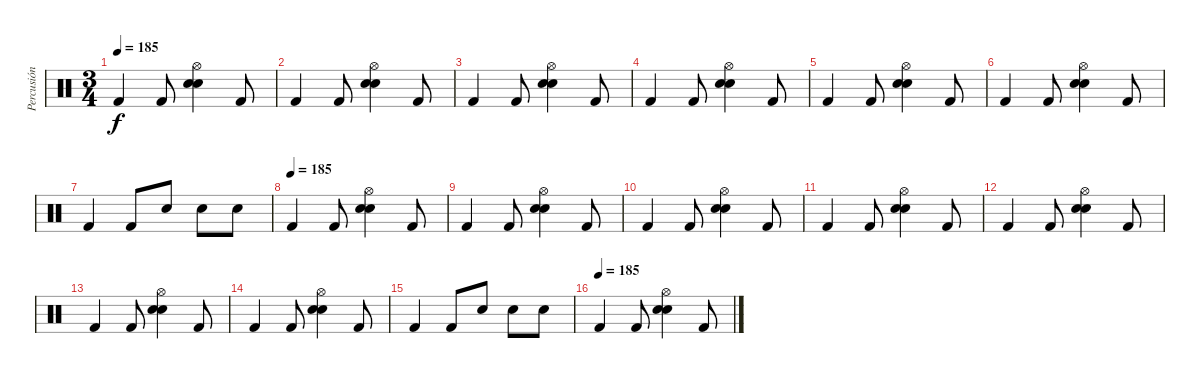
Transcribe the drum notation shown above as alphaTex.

\track ("Percusión" "Percusión") {instrument percussion}
\staff {score}
\articulation defaults
\ts (3 4)
\tempo 185
\clef neutral
\ks c "Kick (hit) 2".4{dy f} "Kick (hit) 2".8
("Hi-Hat (open)" "Electric Snare (hit)" "Snare (hit) 2").4 "Kick (hit) 2".8 |
"Kick (hit) 2".4 "Kick (hit) 2".8 ("Hi-Hat (open)" "Electric Snare (hit)" "Snare (hit) 2").4 "Kick (hit) 2".8 |
"Kick (hit) 2".4 "Kick (hit) 2".8 ("Hi-Hat (open)" "Electric Snare (hit)" "Snare (hit) 2").4 "Kick (hit) 2".8 |
"Kick (hit) 2".4 "Kick (hit) 2".8 ("Hi-Hat (open)" "Electric Snare (hit)" "Snare (hit) 2").4 "Kick (hit) 2".8 |
"Kick (hit) 2".4 "Kick (hit) 2".8 ("Hi-Hat (open)" "Electric Snare (hit)" "Snare (hit) 2").4 "Kick (hit) 2".8 |
"Kick (hit) 2".4 "Kick (hit) 2".8 ("Hi-Hat (open)" "Electric Snare (hit)" "Snare (hit) 2").4 "Kick (hit) 2".8 |
"Kick (hit) 2".4 "Kick (hit) 2".8 "Electric Snare (hit)".8 "Electric Snare (hit)".8 "Electric Snare (hit)".8 |
\tempo (185)
"Kick (hit) 2".4 "Kick (hit) 2".8 ("Hi-Hat (open)" "Electric Snare (hit)" "Snare (hit) 2").4 "Kick (hit) 2".8 |
"Kick (hit) 2".4 "Kick (hit) 2".8 ("Hi-Hat (open)" "Electric Snare (hit)" "Snare (hit) 2").4 "Kick (hit) 2".8 |
"Kick (hit) 2".4 "Kick (hit) 2".8 ("Hi-Hat (open)" "Electric Snare (hit)" "Snare (hit) 2").4 "Kick (hit) 2".8 |
"Kick (hit) 2".4 "Kick (hit) 2".8 ("Hi-Hat (open)" "Electric Snare (hit)" "Snare (hit) 2").4 "Kick (hit) 2".8 |
"Kick (hit) 2".4 "Kick (hit) 2".8 ("Hi-Hat (open)" "Electric Snare (hit)" "Snare (hit) 2").4 "Kick (hit) 2".8 |
"Kick (hit) 2".4 "Kick (hit) 2".8 ("Hi-Hat (open)" "Electric Snare (hit)" "Snare (hit) 2").4 "Kick (hit) 2".8 |
"Kick (hit) 2".4 "Kick (hit) 2".8 ("Hi-Hat (open)" "Electric Snare (hit)" "Snare (hit) 2").4 "Kick (hit) 2".8 |
"Kick (hit) 2".4 "Kick (hit) 2".8 "Electric Snare (hit)".8 "Electric Snare (hit)".8 "Electric Snare (hit)".8 |
\tempo (185)
"Kick (hit) 2".4 "Kick (hit) 2".8 ("Hi-Hat (open)" "Electric Snare (hit)" "Snare (hit) 2").4 "Kick (hit) 2".8
